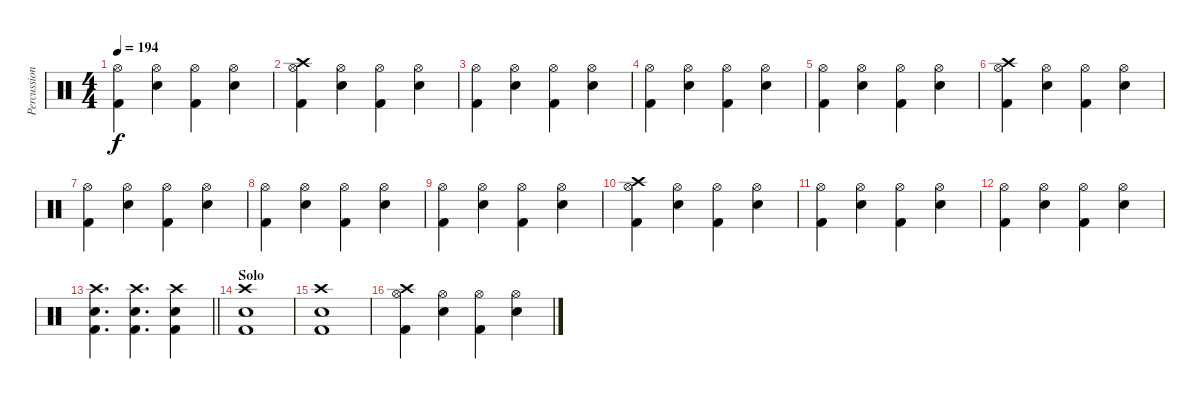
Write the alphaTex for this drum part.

\track ("Percussion" "Percussion") {instrument percussion}
\staff {score}
\articulation defaults
\ts (4 4)
\tempo 194
\clef neutral
\ks c
("Hi-Hat (open)" "Kick (hit) 2").4{dy f} ("Hi-Hat (open)" "Electric Snare (hit)").4 ("Hi-Hat (open)" "Kick (hit) 2").4 ("Hi-Hat (open)" "Electric Snare (hit)").4 |
("Crash high (hit)" "Hi-Hat (open)" "Kick (hit) 2").4 ("Hi-Hat (open)" "Electric Snare (hit)").4 ("Hi-Hat (open)" "Kick (hit) 2").4 ("Hi-Hat (open)" "Electric Snare (hit)").4 |
("Hi-Hat (open)" "Kick (hit) 2").4 ("Hi-Hat (open)" "Electric Snare (hit)").4 ("Hi-Hat (open)" "Kick (hit) 2").4 ("Hi-Hat (open)" "Electric Snare (hit)").4 |
("Hi-Hat (open)" "Kick (hit) 2").4 ("Hi-Hat (open)" "Electric Snare (hit)").4 ("Hi-Hat (open)" "Kick (hit) 2").4 ("Hi-Hat (open)" "Electric Snare (hit)").4 |
("Hi-Hat (open)" "Kick (hit) 2").4 ("Hi-Hat (open)" "Electric Snare (hit)").4 ("Hi-Hat (open)" "Kick (hit) 2").4 ("Hi-Hat (open)" "Electric Snare (hit)").4 |
("Crash high (hit)" "Hi-Hat (open)" "Kick (hit) 2").4 ("Hi-Hat (open)" "Electric Snare (hit)").4 ("Hi-Hat (open)" "Kick (hit) 2").4 ("Hi-Hat (open)" "Electric Snare (hit)").4 |
("Hi-Hat (open)" "Kick (hit) 2").4 ("Hi-Hat (open)" "Electric Snare (hit)").4 ("Hi-Hat (open)" "Kick (hit) 2").4 ("Hi-Hat (open)" "Electric Snare (hit)").4 |
("Hi-Hat (open)" "Kick (hit) 2").4 ("Hi-Hat (open)" "Electric Snare (hit)").4 ("Hi-Hat (open)" "Kick (hit) 2").4 ("Hi-Hat (open)" "Electric Snare (hit)").4 |
("Hi-Hat (open)" "Kick (hit) 2").4 ("Hi-Hat (open)" "Electric Snare (hit)").4 ("Hi-Hat (open)" "Kick (hit) 2").4 ("Hi-Hat (open)" "Electric Snare (hit)").4 |
("Crash high (hit)" "Hi-Hat (open)" "Kick (hit) 2").4 ("Hi-Hat (open)" "Electric Snare (hit)").4 ("Hi-Hat (open)" "Kick (hit) 2").4 ("Hi-Hat (open)" "Electric Snare (hit)").4 |
("Hi-Hat (open)" "Kick (hit) 2").4 ("Hi-Hat (open)" "Electric Snare (hit)").4 ("Hi-Hat (open)" "Kick (hit) 2").4 ("Hi-Hat (open)" "Electric Snare (hit)").4 |
("Hi-Hat (open)" "Kick (hit) 2").4 ("Hi-Hat (open)" "Electric Snare (hit)").4 ("Hi-Hat (open)" "Kick (hit) 2").4 ("Hi-Hat (open)" "Electric Snare (hit)").4 |
\barLineRight lightlight
("Crash high (hit)" "Electric Snare (hit)" "Kick (hit) 2").4{d} ("Crash high (hit)" "Electric Snare (hit)" "Kick (hit) 2").4{d} ("Crash high (hit)" "Electric Snare (hit)" "Kick (hit) 2").4 |
\section ("" "Solo")
("Crash high (hit)" "Electric Snare (hit)" "Kick (hit) 2").1 |
("Crash high (hit)" "Electric Snare (hit)" "Kick (hit) 2").1 |
("Crash high (hit)" "Hi-Hat (open)" "Kick (hit) 2").4 ("Hi-Hat (open)" "Electric Snare (hit)").4 ("Hi-Hat (open)" "Kick (hit) 2").4 ("Hi-Hat (open)" "Electric Snare (hit)").4
